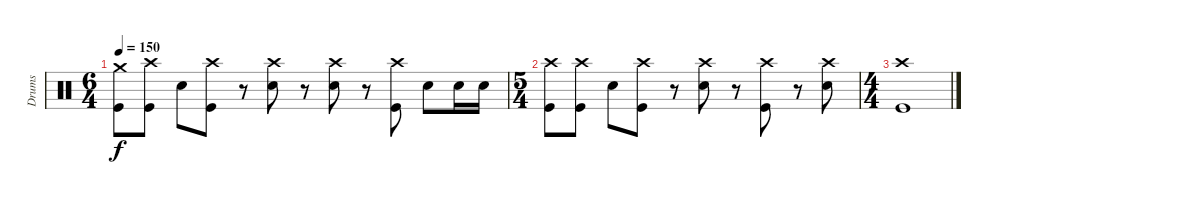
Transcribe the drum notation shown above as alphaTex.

\track ("Drums" "Drums") {instrument percussion}
\staff {score}
\articulation defaults
\ts (6 4)
\tempo 150
\clef neutral
\ks c
("Crash medium (hit)" "Kick (hit)").8{dy f} ("Crash high (hit)" "Kick (hit)").8 "Electric Snare (hit)".8 ("Crash high (hit)" "Kick (hit)").8 r.8 ("Crash high (hit)" "Electric Snare (hit)").8 r.8 ("Crash high (hit)" "Electric Snare (hit)").8 r.8 ("Crash high (hit)" "Kick (hit)").8 "Electric Snare (hit)".8 "Electric Snare (hit)".16 "Electric Snare (hit)".16 |
\ts (5 4)
("Crash high (hit)" "Kick (hit)").8 ("Crash high (hit)" "Kick (hit)").8 "Electric Snare (hit)".8 ("Crash high (hit)" "Kick (hit)").8 r.8 ("Crash high (hit)" "Electric Snare (hit)").8 r.8 ("Crash high (hit)" "Kick (hit)").8 r.8 ("Crash high (hit)" "Electric Snare (hit)").8 |
\ts (4 4)
("Crash high (hit)" "Kick (hit)").1
